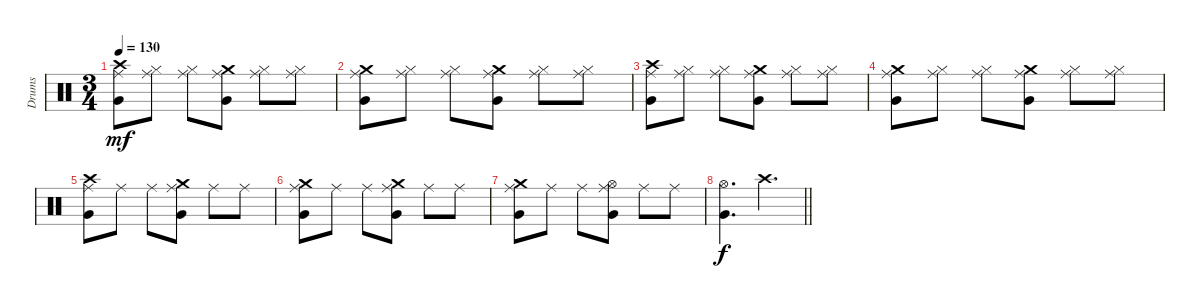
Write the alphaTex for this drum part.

\track ("Drums" "Drums") {instrument percussion}
\staff {score}
\articulation defaults
\ts (3 4)
\section ("" "")
\tempo 130
\clef neutral
\ks c
("Crash high (hit)" "Very Low Tom (hit)" "Ride (middle)").8{dy mf} ("Hi-Hat (closed)" "Ride (middle)").8 ("Hi-Hat (closed)" "Ride (middle)").8 ("Crash medium (hit)" "Very Low Tom (hit)" "Ride (middle)").8 ("Hi-Hat (closed)" "Ride (middle)").8 ("Hi-Hat (closed)" "Ride (middle)").8 |
("Crash medium (hit)" "Very Low Tom (hit)" "Ride (middle)").8 ("Hi-Hat (closed)" "Ride (middle)").8 ("Hi-Hat (closed)" "Ride (middle)").8 ("Crash medium (hit)" "Very Low Tom (hit)" "Ride (middle)").8 ("Hi-Hat (closed)" "Ride (middle)").8 ("Hi-Hat (closed)" "Ride (middle)").8 |
("Crash high (hit)" "Very Low Tom (hit)" "Ride (middle)").8 ("Hi-Hat (closed)" "Ride (middle)").8 ("Hi-Hat (closed)" "Ride (middle)").8 ("Crash medium (hit)" "Very Low Tom (hit)" "Ride (middle)").8 ("Hi-Hat (closed)" "Ride (middle)").8 ("Hi-Hat (closed)" "Ride (middle)").8 |
("Crash medium (hit)" "Very Low Tom (hit)" "Ride (middle)").8 ("Hi-Hat (closed)" "Ride (middle)").8 ("Hi-Hat (closed)" "Ride (middle)").8 ("Crash medium (hit)" "Very Low Tom (hit)" "Ride (middle)").8 ("Hi-Hat (closed)" "Ride (middle)").8 ("Hi-Hat (closed)" "Ride (middle)").8 |
("Crash high (hit)" "Very Low Tom (hit)" "Ride (middle)").8 "Ride (middle)".8 "Ride (middle)".8 ("Crash medium (hit)" "Very Low Tom (hit)" "Ride (middle)").8 "Ride (middle)".8 "Ride (middle)".8 |
("Crash medium (hit)" "Very Low Tom (hit)" "Ride (middle)").8 "Ride (middle)".8 "Ride (middle)".8 ("Crash medium (hit)" "Very Low Tom (hit)" "Ride (middle)").8 "Ride (middle)".8 "Ride (middle)".8 |
("Crash medium (hit)" "Very Low Tom (hit)" "Ride (middle)").8 "Ride (middle)".8 "Ride (middle)".8 ("Hi-Hat (open)" "Very Low Tom (hit)" "Ride (middle)").8 "Ride (middle)".8 "Ride (middle)".8 |
\barLineRight lightlight
("Hi-Hat (open)" "Very Low Tom (hit)").4{d dy f} "Crash high (hit)".4{d}
